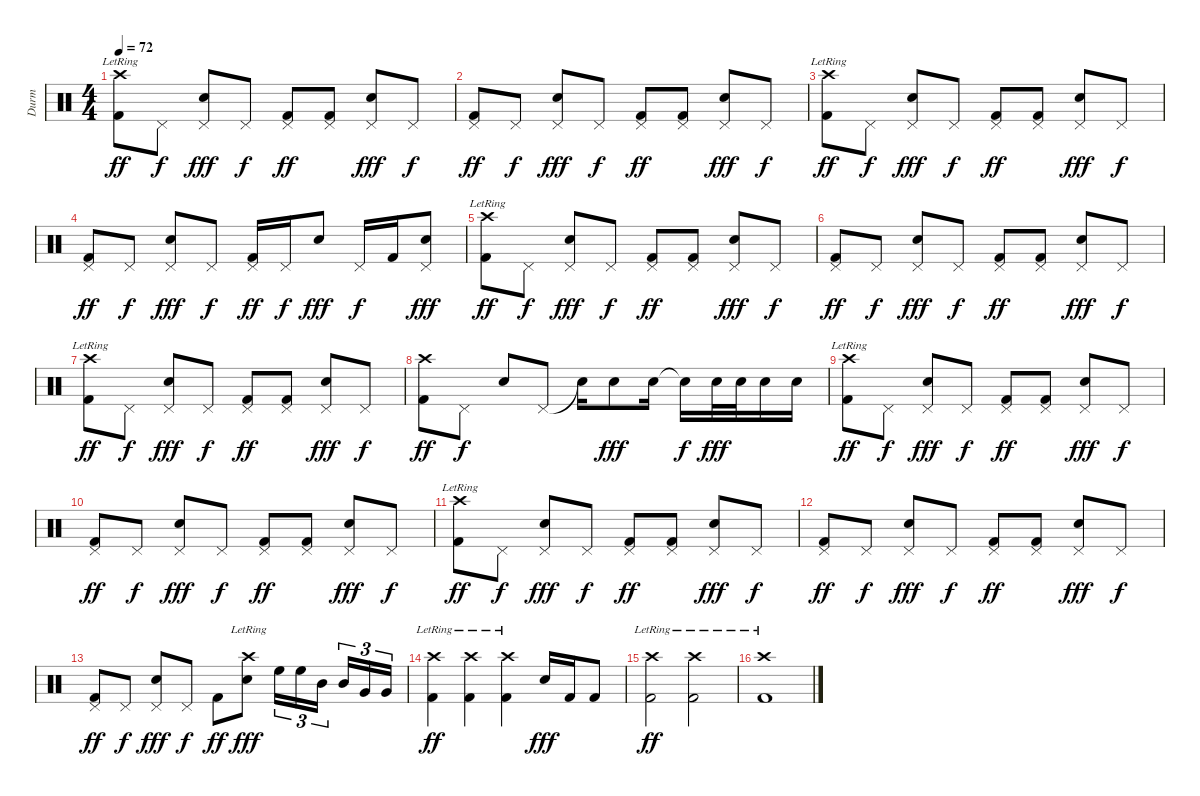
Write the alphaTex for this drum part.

\track ("Durm" "Durm") {instrument percussion}
\staff {score}
\articulation defaults
\ts (4 4)
\tempo 72
\clef neutral
\ks c
("Crash high (hit)"{lr} "Kick (hit) 2").8{dy ff} "Pedal Hi-Hat (hit)".8{dy f} ("Pedal Hi-Hat (hit)" "Electric Snare (hit)").8{dy fff} "Pedal Hi-Hat (hit)".8{dy f} ("Pedal Hi-Hat (hit)" "Kick (hit) 2").8{dy ff} ("Pedal Hi-Hat (hit)" "Kick (hit) 2").8 ("Pedal Hi-Hat (hit)" "Electric Snare (hit)").8{dy fff} "Pedal Hi-Hat (hit)".8{dy f} |
("Pedal Hi-Hat (hit)" "Kick (hit) 2").8{dy ff} "Pedal Hi-Hat (hit)".8{dy f} ("Pedal Hi-Hat (hit)" "Electric Snare (hit)").8{dy fff} "Pedal Hi-Hat (hit)".8{dy f} ("Pedal Hi-Hat (hit)" "Kick (hit) 2").8{dy ff} ("Pedal Hi-Hat (hit)" "Kick (hit) 2").8 ("Pedal Hi-Hat (hit)" "Electric Snare (hit)").8{dy fff} "Pedal Hi-Hat (hit)".8{dy f} |
("Crash high (hit)"{lr} "Kick (hit) 2").8{dy ff} "Pedal Hi-Hat (hit)".8{dy f} ("Pedal Hi-Hat (hit)" "Electric Snare (hit)").8{dy fff} "Pedal Hi-Hat (hit)".8{dy f} ("Pedal Hi-Hat (hit)" "Kick (hit) 2").8{dy ff} ("Pedal Hi-Hat (hit)" "Kick (hit) 2").8 ("Pedal Hi-Hat (hit)" "Electric Snare (hit)").8{dy fff} "Pedal Hi-Hat (hit)".8{dy f} |
("Pedal Hi-Hat (hit)" "Kick (hit) 2").8{dy ff} "Pedal Hi-Hat (hit)".8{dy f} ("Pedal Hi-Hat (hit)" "Electric Snare (hit)").8{dy fff} "Pedal Hi-Hat (hit)".8{dy f} ("Pedal Hi-Hat (hit)" "Kick (hit) 2").16{dy ff} "Pedal Hi-Hat (hit)".16{dy f} "Electric Snare (hit)".8{dy fff} "Pedal Hi-Hat (hit)".16{dy f} "Kick (hit) 2".16 ("Pedal Hi-Hat (hit)" "Electric Snare (hit)").8{dy fff} |
("Crash high (hit)"{lr} "Kick (hit) 2").8{dy ff} "Pedal Hi-Hat (hit)".8{dy f} ("Pedal Hi-Hat (hit)" "Electric Snare (hit)").8{dy fff} "Pedal Hi-Hat (hit)".8{dy f} ("Pedal Hi-Hat (hit)" "Kick (hit) 2").8{dy ff} ("Pedal Hi-Hat (hit)" "Kick (hit) 2").8 ("Pedal Hi-Hat (hit)" "Electric Snare (hit)").8{dy fff} "Pedal Hi-Hat (hit)".8{dy f} |
("Pedal Hi-Hat (hit)" "Kick (hit) 2").8{dy ff} "Pedal Hi-Hat (hit)".8{dy f} ("Pedal Hi-Hat (hit)" "Electric Snare (hit)").8{dy fff} "Pedal Hi-Hat (hit)".8{dy f} ("Pedal Hi-Hat (hit)" "Kick (hit) 2").8{dy ff} ("Pedal Hi-Hat (hit)" "Kick (hit) 2").8 ("Pedal Hi-Hat (hit)" "Electric Snare (hit)").8{dy fff} "Pedal Hi-Hat (hit)".8{dy f} |
("Crash high (hit)"{lr} "Kick (hit) 2").8{dy ff} "Pedal Hi-Hat (hit)".8{dy f} ("Pedal Hi-Hat (hit)" "Electric Snare (hit)").8{dy fff} "Pedal Hi-Hat (hit)".8{dy f} ("Pedal Hi-Hat (hit)" "Kick (hit) 2").8{dy ff} ("Pedal Hi-Hat (hit)" "Kick (hit) 2").8 ("Pedal Hi-Hat (hit)" "Electric Snare (hit)").8{dy fff} "Pedal Hi-Hat (hit)".8{dy f} |
("Crash high (hit)" "Kick (hit) 2").8{dy ff} "Pedal Hi-Hat (hit)".8{dy f} "Electric Snare (hit)".8 "Pedal Hi-Hat (hit)".8 "Snare (hit)"{t}.16 "Electric Snare (hit)".8{dy fff} "Electric Snare (hit)".16 "Snare (hit)"{t}.16{dy f} "Electric Snare (hit)".32{dy fff} "Electric Snare (hit)".32 "Electric Snare (hit)".16 "Electric Snare (hit)".16 |
("Crash high (hit)"{lr} "Kick (hit) 2").8{dy ff} "Pedal Hi-Hat (hit)".8{dy f} ("Pedal Hi-Hat (hit)" "Electric Snare (hit)").8{dy fff} "Pedal Hi-Hat (hit)".8{dy f} ("Pedal Hi-Hat (hit)" "Kick (hit) 2").8{dy ff} ("Pedal Hi-Hat (hit)" "Kick (hit) 2").8 ("Pedal Hi-Hat (hit)" "Electric Snare (hit)").8{dy fff} "Pedal Hi-Hat (hit)".8{dy f} |
("Pedal Hi-Hat (hit)" "Kick (hit) 2").8{dy ff} "Pedal Hi-Hat (hit)".8{dy f} ("Pedal Hi-Hat (hit)" "Electric Snare (hit)").8{dy fff} "Pedal Hi-Hat (hit)".8{dy f} ("Pedal Hi-Hat (hit)" "Kick (hit) 2").8{dy ff} ("Pedal Hi-Hat (hit)" "Kick (hit) 2").8 ("Pedal Hi-Hat (hit)" "Electric Snare (hit)").8{dy fff} "Pedal Hi-Hat (hit)".8{dy f} |
("Crash high (hit)"{lr} "Kick (hit) 2").8{dy ff} "Pedal Hi-Hat (hit)".8{dy f} ("Pedal Hi-Hat (hit)" "Electric Snare (hit)").8{dy fff} "Pedal Hi-Hat (hit)".8{dy f} ("Pedal Hi-Hat (hit)" "Kick (hit) 2").8{dy ff} ("Pedal Hi-Hat (hit)" "Kick (hit) 2").8 ("Pedal Hi-Hat (hit)" "Electric Snare (hit)").8{dy fff} "Pedal Hi-Hat (hit)".8{dy f} |
("Pedal Hi-Hat (hit)" "Kick (hit) 2").8{dy ff} "Pedal Hi-Hat (hit)".8{dy f} ("Pedal Hi-Hat (hit)" "Electric Snare (hit)").8{dy fff} "Pedal Hi-Hat (hit)".8{dy f} ("Pedal Hi-Hat (hit)" "Kick (hit) 2").8{dy ff} ("Pedal Hi-Hat (hit)" "Kick (hit) 2").8 ("Pedal Hi-Hat (hit)" "Electric Snare (hit)").8{dy fff} "Pedal Hi-Hat (hit)".8{dy f} |
("Pedal Hi-Hat (hit)" "Kick (hit) 2").8{dy ff} "Pedal Hi-Hat (hit)".8{dy f} ("Pedal Hi-Hat (hit)" "Electric Snare (hit)").8{dy fff} "Pedal Hi-Hat (hit)".8{dy f} "Kick (hit) 2".8{dy ff} ("Crash high (hit)"{lr} "Electric Snare (hit)").8{dy fff} "High Floor Tom (hit)".16{tu (3 2)} "High Floor Tom (hit)".16{tu (3 2)} "Mid Tom (hit)".16{tu (3 2)} "Mid Tom (hit)".16{tu (3 2)} "Very Low Tom (hit)".16{tu (3 2)} "Very Low Tom (hit)".16{tu (3 2)} |
("Crash high (hit)"{lr} "Kick (hit) 2").4{dy ff} ("Crash high (hit)"{lr} "Kick (hit) 2").4 ("Crash high (hit)"{lr} "Kick (hit) 2").4 "Electric Snare (hit)".16{dy fff} "Kick (hit) 2".16 "Kick (hit) 2".8 |
("Crash high (hit)"{lr} "Kick (hit) 2").2{dy ff} ("Crash high (hit)"{lr} "Kick (hit) 2").2 |
("Crash high (hit)"{lr} "Kick (hit) 2").1
